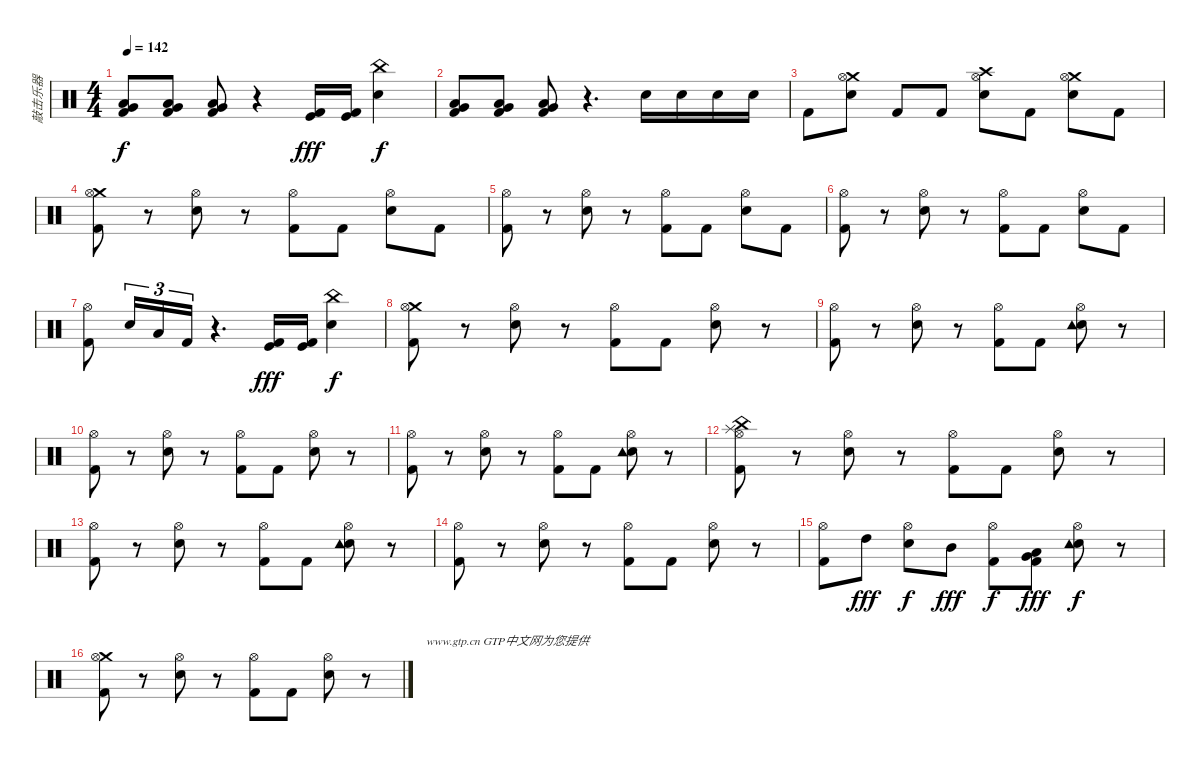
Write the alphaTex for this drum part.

\track ("敲击乐器" "敲击乐器") {instrument percussion}
\staff {score}
\articulation defaults
\ts (4 4)
\tempo 142
\clef neutral
\ks c
("Low Tom (hit)" "Very Low Tom (hit)" "Kick (hit) 2").8{dy f} ("Low Tom (hit)" "Very Low Tom (hit)" "Kick (hit) 2").8 ("Low Tom (hit)" "Very Low Tom (hit)" "Kick (hit) 2").8 r.4 ("Kick (hit)" "Kick (hit) 2").16{dy fff} ("Kick (hit)" "Kick (hit) 2").16 ("Snare (hit) 2" "China (hit)").4{dy f} |
("Very Low Tom (hit)" "Low Floor Tom (hit)" "Kick (hit) 2").8 ("Very Low Tom (hit)" "Low Floor Tom (hit)" "Kick (hit) 2").8 ("Very Low Tom (hit)" "Low Floor Tom (hit)" "Kick (hit) 2").8 r.4{d} "Snare (hit) 2".16 "Snare (hit) 2".16 "Snare (hit) 2".16 "Snare (hit) 2".16 |
"Kick (hit) 2".8 ("Snare (hit) 2" "Crash medium (hit)" "Hi-Hat (open)").8 "Kick (hit) 2".8 "Kick (hit) 2".8 ("Snare (hit) 2" "Crash high (hit)" "Hi-Hat (open)").8 "Kick (hit) 2".8 ("Snare (hit) 2" "Crash medium (hit)" "Hi-Hat (open)").8 "Kick (hit) 2".8 |
("Crash medium (hit)" "Hi-Hat (open)" "Kick (hit) 2").8 r.8 ("Snare (hit) 2" "Hi-Hat (open)").8 r.8 ("Hi-Hat (open)" "Kick (hit) 2").8 "Kick (hit) 2".8 ("Snare (hit) 2" "Hi-Hat (open)").8 "Kick (hit) 2".8 |
("Hi-Hat (open)" "Kick (hit) 2").8 r.8 ("Snare (hit) 2" "Hi-Hat (open)").8 r.8 ("Hi-Hat (open)" "Kick (hit) 2").8 "Kick (hit) 2".8 ("Snare (hit) 2" "Hi-Hat (open)").8 "Kick (hit) 2".8 |
("Hi-Hat (open)" "Kick (hit) 2").8 r.8 ("Snare (hit) 2" "Hi-Hat (open)").8 r.8 ("Hi-Hat (open)" "Kick (hit) 2").8 "Kick (hit) 2".8 ("Snare (hit) 2" "Hi-Hat (open)").8 "Kick (hit) 2".8 |
("Hi-Hat (open)" "Kick (hit) 2").8 "Snare (hit) 2".16{tu (3 2)} "Low Floor Tom (hit)".16{tu (3 2)} "Kick (hit) 2".16{tu (3 2)} r.4{d} ("Kick (hit)" "Kick (hit) 2").16{dy fff} ("Kick (hit)" "Kick (hit) 2").16 ("Snare (hit) 2" "China (hit)").4{dy f} |
("Crash medium (hit)" "Hi-Hat (open)" "Kick (hit) 2").8 r.8 ("Snare (hit) 2" "Hi-Hat (open)").8 r.8 ("Hi-Hat (open)" "Kick (hit) 2").8 "Kick (hit) 2".8 ("Snare (hit) 2" "Hi-Hat (open)").8 r.8 |
("Hi-Hat (open)" "Kick (hit) 2").8 r.8 ("Snare (hit) 2" "Hi-Hat (open)").8 r.8 ("Hi-Hat (open)" "Kick (hit) 2").8 "Kick (hit) 2".8 ("Snare (hit) 2" "Tambourine (hit)" "Hi-Hat (open)").8 r.8 |
("Hi-Hat (open)" "Kick (hit) 2").8 r.8 ("Snare (hit) 2" "Hi-Hat (open)").8 r.8 ("Hi-Hat (open)" "Kick (hit) 2").8 "Kick (hit) 2".8 ("Snare (hit) 2" "Hi-Hat (open)").8 r.8 |
("Hi-Hat (open)" "Kick (hit) 2").8 r.8 ("Snare (hit) 2" "Hi-Hat (open)").8 r.8 ("Hi-Hat (open)" "Kick (hit) 2").8 "Kick (hit) 2".8 ("Snare (hit) 2" "Tambourine (hit)" "Hi-Hat (open)").8 r.8 |
("China (hit)" "Splash (hit)" "Hi-Hat (open)" "Kick (hit) 2").8 r.8 ("Snare (hit) 2" "Hi-Hat (open)").8 r.8 ("Hi-Hat (open)" "Kick (hit) 2").8 "Kick (hit) 2".8 ("Snare (hit) 2" "Hi-Hat (open)").8 r.8 |
("Hi-Hat (open)" "Kick (hit) 2").8 r.8 ("Snare (hit) 2" "Hi-Hat (open)").8 r.8 ("Hi-Hat (open)" "Kick (hit) 2").8 "Kick (hit) 2".8 ("Snare (hit) 2" "Tambourine (hit)" "Hi-Hat (open)").8 r.8 |
("Hi-Hat (open)" "Kick (hit) 2").8 r.8 ("Snare (hit) 2" "Hi-Hat (open)").8 r.8 ("Hi-Hat (open)" "Kick (hit) 2").8 "Kick (hit) 2".8 ("Snare (hit) 2" "Hi-Hat (open)").8 r.8 |
("Hi-Hat (open)" "Kick (hit) 2").8 "High Tom (hit)".8{dy fff} ("Snare (hit) 2" "Hi-Hat (open)").8{dy f} "Mid Tom (hit)".8{dy fff} ("Hi-Hat (open)" "Kick (hit) 2").8{dy f} ("Very Low Tom (hit)" "Low Floor Tom (hit)" "Kick (hit) 2").8{dy fff} ("Snare (hit) 2" "Tambourine (hit)" "Hi-Hat (open)").8{dy f} r.8 |
("Crash medium (hit)" "Hi-Hat (open)" "Kick (hit) 2").8 r.8 ("Snare (hit) 2" "Hi-Hat (open)").8 r.8 ("Hi-Hat (open)" "Kick (hit) 2").8 "Kick (hit) 2".8 ("Snare (hit) 2" "Hi-Hat (open)").8 r.8{txt "                    www.gtp.cn GTP中文网为您提供"}
